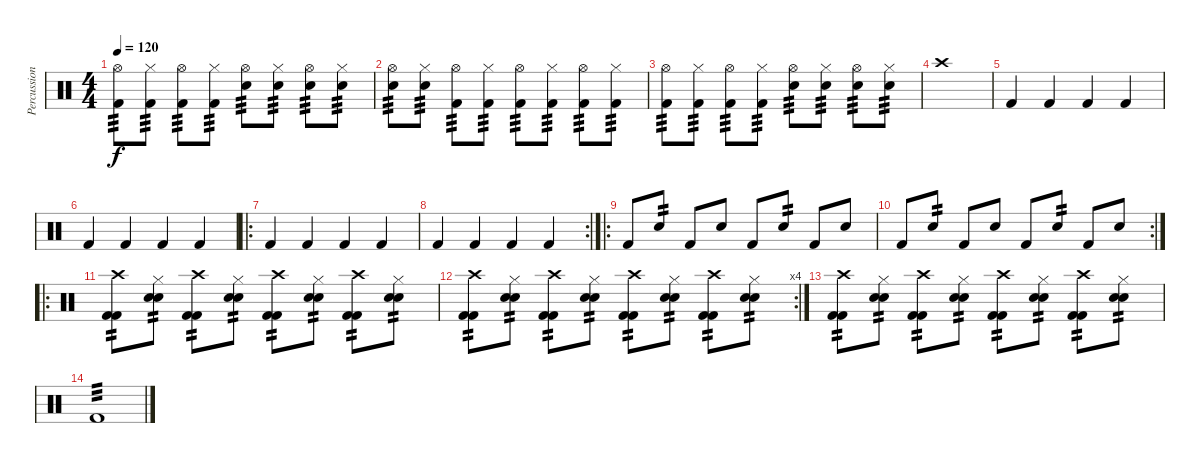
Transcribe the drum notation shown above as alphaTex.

\track ("Percussions" "Percussion") {instrument percussion}
\staff {score}
\articulation defaults
\ts (4 4)
\tempo 120
\clef neutral
\ks c
("Hi-Hat (open)" "Kick (hit) 2").8{tp 3 dy f} ("Hi-Hat (closed)" "Kick (hit) 2").8{tp 3} ("Hi-Hat (open)" "Kick (hit) 2").8{tp 3} ("Hi-Hat (closed)" "Kick (hit) 2").8{tp 3} ("Hi-Hat (open)" "Snare (hit) 2").8{tp 3} ("Hi-Hat (closed)" "Snare (hit) 2").8{tp 3} ("Hi-Hat (open)" "Snare (hit) 2").8{tp 3} ("Hi-Hat (closed)" "Snare (hit) 2").8{tp 3} |
("Hi-Hat (open)" "Snare (hit) 2").8{tp 3} ("Hi-Hat (closed)" "Snare (hit) 2").8{tp 3} ("Hi-Hat (open)" "Kick (hit) 2").8{tp 3} ("Hi-Hat (closed)" "Kick (hit) 2").8{tp 3} ("Hi-Hat (open)" "Kick (hit) 2").8{tp 3} ("Hi-Hat (closed)" "Kick (hit) 2").8{tp 3} ("Hi-Hat (open)" "Kick (hit) 2").8{tp 3} ("Hi-Hat (closed)" "Kick (hit) 2").8{tp 3} |
("Hi-Hat (open)" "Kick (hit) 2").8{tp 3} ("Hi-Hat (closed)" "Kick (hit) 2").8{tp 3} ("Hi-Hat (open)" "Kick (hit) 2").8{tp 3} ("Hi-Hat (closed)" "Kick (hit) 2").8{tp 3} ("Hi-Hat (open)" "Snare (hit) 2").8{tp 3} ("Hi-Hat (closed)" "Snare (hit) 2").8{tp 3} ("Hi-Hat (open)" "Snare (hit) 2").8{tp 3} ("Hi-Hat (closed)" "Snare (hit) 2").8{tp 3} |
"Crash high (hit)".1 |
"Kick (hit) 2".4 "Kick (hit) 2".4 "Kick (hit) 2".4 "Kick (hit) 2".4 |
"Kick (hit) 2".4 "Kick (hit) 2".4 "Kick (hit) 2".4 "Kick (hit) 2".4 |
\ro "Kick (hit) 2".4 "Kick (hit) 2".4 "Kick (hit) 2".4 "Kick (hit) 2".4
|
\rc 2 "Kick (hit) 2".4 "Kick (hit) 2".4 "Kick (hit) 2".4 "Kick (hit) 2".4
|
\ro "Kick (hit) 2".8 "Snare (hit) 2".8{tp 2} "Kick (hit) 2".8 "Snare (hit) 2".8 "Kick (hit) 2".8 "Snare (hit) 2".8{tp 2} "Kick (hit) 2".8 "Snare (hit) 2".8
|
\rc 2 "Kick (hit) 2".8 "Snare (hit) 2".8{tp 2} "Kick (hit) 2".8 "Snare (hit) 2".8 "Kick (hit) 2".8 "Snare (hit) 2".8{tp 2} "Kick (hit) 2".8 "Snare (hit) 2".8
|
\ro
("Kick (hit) 2" "Crash high (hit)" "Kick (hit) 2").8{tp 2} ("Snare (hit) 2" "Hi-Hat (closed)" "Snare (hit) 2").8{tp 2} ("Kick (hit) 2" "Crash high (hit)" "Kick (hit) 2").8{tp 2} ("Snare (hit) 2" "Hi-Hat (closed)" "Snare (hit) 2").8{tp 2} ("Kick (hit) 2" "Crash high (hit)" "Kick (hit) 2").8{tp 2} ("Snare (hit) 2" "Hi-Hat (closed)" "Snare (hit) 2").8{tp 2} ("Kick (hit) 2" "Crash high (hit)" "Kick (hit) 2").8{tp 2} ("Snare (hit) 2" "Hi-Hat (closed)" "Snare (hit) 2").8{tp 2} |
\rc 4
("Kick (hit) 2" "Crash high (hit)" "Kick (hit) 2").8{tp 2} ("Snare (hit) 2" "Hi-Hat (closed)" "Snare (hit) 2").8{tp 2} ("Kick (hit) 2" "Crash high (hit)" "Kick (hit) 2").8{tp 2} ("Snare (hit) 2" "Hi-Hat (closed)" "Snare (hit) 2").8{tp 2} ("Kick (hit) 2" "Crash high (hit)" "Kick (hit) 2").8{tp 2} ("Snare (hit) 2" "Hi-Hat (closed)" "Snare (hit) 2").8{tp 2} ("Kick (hit) 2" "Crash high (hit)" "Kick (hit) 2").8{tp 2} ("Snare (hit) 2" "Hi-Hat (closed)" "Snare (hit) 2").8{tp 2} |
("Kick (hit) 2" "Crash high (hit)" "Kick (hit) 2").8{tp 2} ("Snare (hit) 2" "Hi-Hat (closed)" "Snare (hit) 2").8{tp 2} ("Kick (hit) 2" "Crash high (hit)" "Kick (hit) 2").8{tp 2} ("Snare (hit) 2" "Hi-Hat (closed)" "Snare (hit) 2").8{tp 2} ("Kick (hit) 2" "Crash high (hit)" "Kick (hit) 2").8{tp 2} ("Snare (hit) 2" "Hi-Hat (closed)" "Snare (hit) 2").8{tp 2} ("Kick (hit) 2" "Crash high (hit)" "Kick (hit) 2").8{tp 2} ("Snare (hit) 2" "Hi-Hat (closed)" "Snare (hit) 2").8{tp 2} |
"Kick (hit) 2".1{tp 3}
